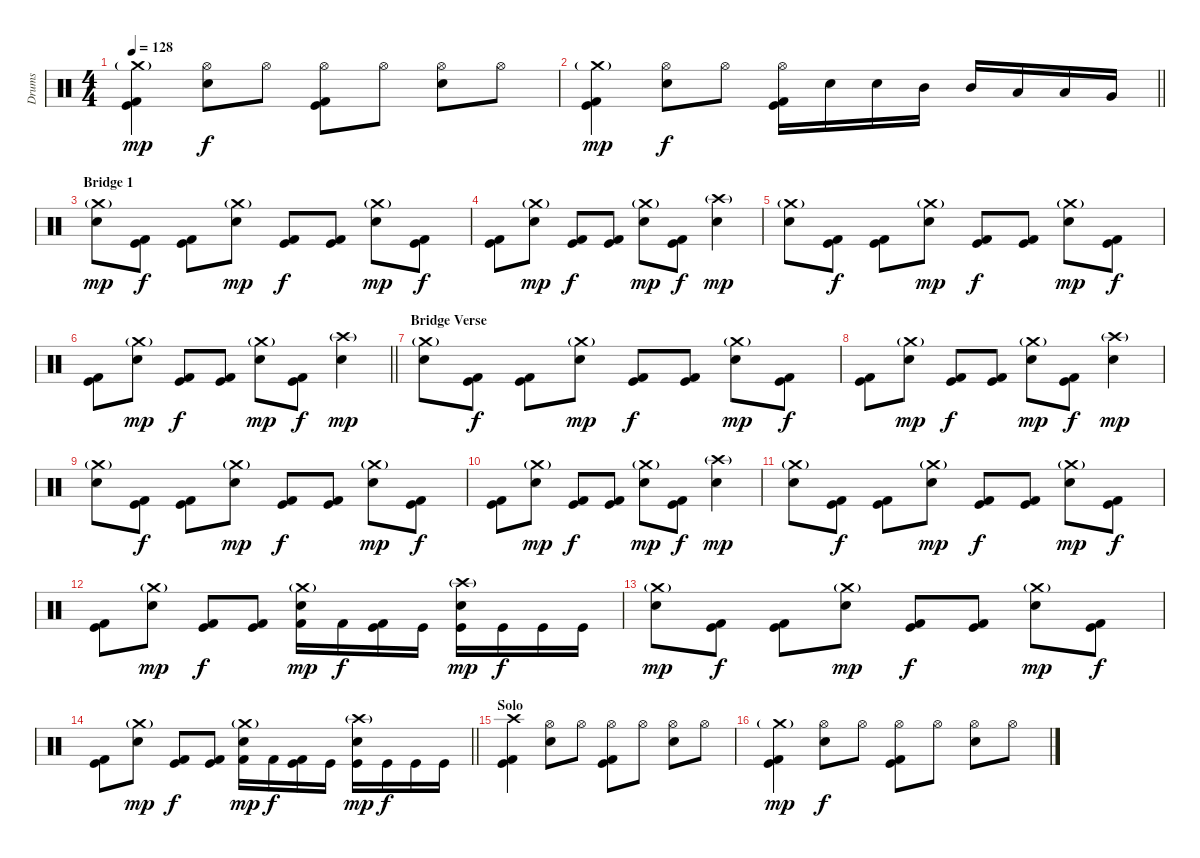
\track ("Drums" "Drums") {instrument percussion}
\staff {score}
\articulation defaults
\ts (4 4)
\tempo 128
\clef neutral
\ks c
("Crash medium (hit)"{g} "Kick (hit)" "Kick (hit) 2").4{dy mp} ("Hi-Hat (open)" "Electric Snare (hit)").8{dy f} "Hi-Hat (open)".8 ("Hi-Hat (open)" "Kick (hit)" "Kick (hit) 2").8 "Hi-Hat (open)".8 ("Hi-Hat (open)" "Electric Snare (hit)").8 "Hi-Hat (open)".8 |
\barLineRight lightlight
("Crash medium (hit)"{g} "Kick (hit)" "Kick (hit) 2").4{dy mp} ("Hi-Hat (open)" "Electric Snare (hit)").8{dy f} "Hi-Hat (open)".8 ("Hi-Hat (open)" "Kick (hit)" "Kick (hit) 2").16 "Electric Snare (hit)".16 "Electric Snare (hit)".16 "Mid Tom (hit)".16 "Mid Tom (hit)".16 "Low Tom (hit)".16 "Low Tom (hit)".16 "Very Low Tom (hit)".16 |
\section ("" "Bridge 1")
("Crash medium (hit)"{g} "Electric Snare (hit)").8{dy mp} ("Kick (hit)" "Kick (hit) 2").8{dy f} ("Kick (hit)" "Kick (hit) 2").8 ("Crash medium (hit)"{g} "Electric Snare (hit)").8{dy mp} ("Kick (hit)" "Kick (hit) 2").8{dy f} ("Kick (hit)" "Kick (hit) 2").8 ("Crash medium (hit)"{g} "Electric Snare (hit)").8{dy mp} ("Kick (hit)" "Kick (hit) 2").8{dy f} |
("Kick (hit)" "Kick (hit) 2").8 ("Crash medium (hit)"{g} "Electric Snare (hit)").8{dy mp} ("Kick (hit)" "Kick (hit) 2").8{dy f} ("Kick (hit)" "Kick (hit) 2").8 ("Crash medium (hit)"{g} "Electric Snare (hit)").8{dy mp} ("Kick (hit)" "Kick (hit) 2").8{dy f} ("Crash high (hit)"{g} "Electric Snare (hit)").4{dy mp} |
("Crash medium (hit)"{g} "Electric Snare (hit)").8 ("Kick (hit)" "Kick (hit) 2").8{dy f} ("Kick (hit)" "Kick (hit) 2").8 ("Crash medium (hit)"{g} "Electric Snare (hit)").8{dy mp} ("Kick (hit)" "Kick (hit) 2").8{dy f} ("Kick (hit)" "Kick (hit) 2").8 ("Crash medium (hit)"{g} "Electric Snare (hit)").8{dy mp} ("Kick (hit)" "Kick (hit) 2").8{dy f} |
\barLineRight lightlight
("Kick (hit)" "Kick (hit) 2").8 ("Crash medium (hit)"{g} "Electric Snare (hit)").8{dy mp} ("Kick (hit)" "Kick (hit) 2").8{dy f} ("Kick (hit)" "Kick (hit) 2").8 ("Crash medium (hit)"{g} "Electric Snare (hit)").8{dy mp} ("Kick (hit)" "Kick (hit) 2").8{dy f} ("Crash high (hit)"{g} "Electric Snare (hit)").4{dy mp} |
\section ("" "Bridge Verse")
("Crash medium (hit)"{g} "Electric Snare (hit)").8 ("Kick (hit)" "Kick (hit) 2").8{dy f} ("Kick (hit)" "Kick (hit) 2").8 ("Crash medium (hit)"{g} "Electric Snare (hit)").8{dy mp} ("Kick (hit)" "Kick (hit) 2").8{dy f} ("Kick (hit)" "Kick (hit) 2").8 ("Crash medium (hit)"{g} "Electric Snare (hit)").8{dy mp} ("Kick (hit)" "Kick (hit) 2").8{dy f} |
("Kick (hit)" "Kick (hit) 2").8 ("Crash medium (hit)"{g} "Electric Snare (hit)").8{dy mp} ("Kick (hit)" "Kick (hit) 2").8{dy f} ("Kick (hit)" "Kick (hit) 2").8 ("Crash medium (hit)"{g} "Electric Snare (hit)").8{dy mp} ("Kick (hit)" "Kick (hit) 2").8{dy f} ("Crash high (hit)"{g} "Electric Snare (hit)").4{dy mp} |
("Crash medium (hit)"{g} "Electric Snare (hit)").8 ("Kick (hit)" "Kick (hit) 2").8{dy f} ("Kick (hit)" "Kick (hit) 2").8 ("Crash medium (hit)"{g} "Electric Snare (hit)").8{dy mp} ("Kick (hit)" "Kick (hit) 2").8{dy f} ("Kick (hit)" "Kick (hit) 2").8 ("Crash medium (hit)"{g} "Electric Snare (hit)").8{dy mp} ("Kick (hit)" "Kick (hit) 2").8{dy f} |
("Kick (hit)" "Kick (hit) 2").8 ("Crash medium (hit)"{g} "Electric Snare (hit)").8{dy mp} ("Kick (hit)" "Kick (hit) 2").8{dy f} ("Kick (hit)" "Kick (hit) 2").8 ("Crash medium (hit)"{g} "Electric Snare (hit)").8{dy mp} ("Kick (hit)" "Kick (hit) 2").8{dy f} ("Crash high (hit)"{g} "Electric Snare (hit)").4{dy mp} |
("Crash medium (hit)"{g} "Electric Snare (hit)").8 ("Kick (hit)" "Kick (hit) 2").8{dy f} ("Kick (hit)" "Kick (hit) 2").8 ("Crash medium (hit)"{g} "Electric Snare (hit)").8{dy mp} ("Kick (hit)" "Kick (hit) 2").8{dy f} ("Kick (hit)" "Kick (hit) 2").8 ("Crash medium (hit)"{g} "Electric Snare (hit)").8{dy mp} ("Kick (hit)" "Kick (hit) 2").8{dy f} |
("Kick (hit)" "Kick (hit) 2").8 ("Crash medium (hit)"{g} "Electric Snare (hit)").8{dy mp} ("Kick (hit)" "Kick (hit) 2").8{dy f} ("Kick (hit)" "Kick (hit) 2").8 ("Crash medium (hit)"{g} "Electric Snare (hit)" "Kick (hit) 2").16{dy mp} "Kick (hit) 2".16{dy f} ("Kick (hit)" "Kick (hit) 2").16 "Kick (hit)".16 ("Crash high (hit)"{g} "Electric Snare (hit)" "Kick (hit)").16{dy mp} "Kick (hit)".16{dy f} "Kick (hit)".16 "Kick (hit)".16 |
("Crash medium (hit)"{g} "Electric Snare (hit)").8{dy mp} ("Kick (hit)" "Kick (hit) 2").8{dy f} ("Kick (hit)" "Kick (hit) 2").8 ("Crash medium (hit)"{g} "Electric Snare (hit)").8{dy mp} ("Kick (hit)" "Kick (hit) 2").8{dy f} ("Kick (hit)" "Kick (hit) 2").8 ("Crash medium (hit)"{g} "Electric Snare (hit)").8{dy mp} ("Kick (hit)" "Kick (hit) 2").8{dy f} |
\barLineRight lightlight
("Kick (hit)" "Kick (hit) 2").8 ("Crash medium (hit)"{g} "Electric Snare (hit)").8{dy mp} ("Kick (hit)" "Kick (hit) 2").8{dy f} ("Kick (hit)" "Kick (hit) 2").8 ("Crash medium (hit)"{g} "Electric Snare (hit)" "Kick (hit) 2").16{dy mp} "Kick (hit) 2".16{dy f} ("Kick (hit)" "Kick (hit) 2").16 "Kick (hit)".16 ("Crash high (hit)"{g} "Electric Snare (hit)" "Kick (hit)").16{dy mp} "Kick (hit)".16{dy f} "Kick (hit)".16 "Kick (hit)".16 |
\section ("" "Solo")
("Crash high (hit)" "Kick (hit)" "Kick (hit) 2").4 ("Hi-Hat (open)" "Electric Snare (hit)").8 "Hi-Hat (open)".8 ("Hi-Hat (open)" "Kick (hit)" "Kick (hit) 2").8 "Hi-Hat (open)".8 ("Hi-Hat (open)" "Electric Snare (hit)").8 "Hi-Hat (open)".8 |
("Crash medium (hit)"{g} "Kick (hit)" "Kick (hit) 2").4{dy mp} ("Hi-Hat (open)" "Electric Snare (hit)").8{dy f} "Hi-Hat (open)".8 ("Hi-Hat (open)" "Kick (hit)" "Kick (hit) 2").8 "Hi-Hat (open)".8 ("Hi-Hat (open)" "Electric Snare (hit)").8 "Hi-Hat (open)".8
